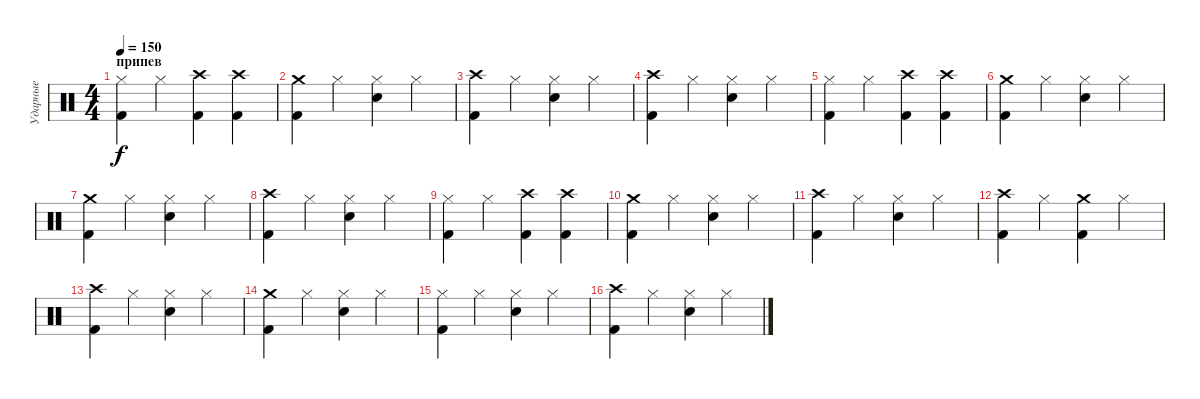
\track ("Ударные" "Ударные") {instrument percussion}
\staff {score}
\articulation defaults
\ts (4 4)
\section ("" "припев ")
\tempo 150
\clef neutral
\ks c
("Hi-Hat (closed)" "Kick (hit) 2").4{dy f} "Hi-Hat (closed)".4 ("Crash high (hit)" "Kick (hit) 2").4 ("Crash high (hit)" "Kick (hit) 2").4 |
("Crash medium (hit)" "Kick (hit) 2").4 "Hi-Hat (closed)".4 ("Hi-Hat (closed)" "Snare (hit) 2").4 "Hi-Hat (closed)".4 |
("Crash high (hit)" "Kick (hit) 2").4 "Hi-Hat (closed)".4 ("Hi-Hat (closed)" "Snare (hit) 2").4 "Hi-Hat (closed)".4 |
("Crash high (hit)" "Kick (hit) 2").4 "Hi-Hat (closed)".4 ("Hi-Hat (closed)" "Snare (hit) 2").4 "Hi-Hat (closed)".4 |
("Hi-Hat (closed)" "Kick (hit) 2").4 "Hi-Hat (closed)".4 ("Crash high (hit)" "Kick (hit) 2").4 ("Crash high (hit)" "Kick (hit) 2").4 |
("Crash medium (hit)" "Kick (hit) 2").4 "Hi-Hat (closed)".4 ("Hi-Hat (closed)" "Snare (hit) 2").4 "Hi-Hat (closed)".4 |
("Crash medium (hit)" "Kick (hit) 2").4 "Hi-Hat (closed)".4 ("Hi-Hat (closed)" "Snare (hit) 2").4 "Hi-Hat (closed)".4 |
("Crash high (hit)" "Kick (hit) 2").4 "Hi-Hat (closed)".4 ("Hi-Hat (closed)" "Snare (hit) 2").4 "Hi-Hat (closed)".4 |
("Hi-Hat (closed)" "Kick (hit) 2").4 "Hi-Hat (closed)".4 ("Crash high (hit)" "Kick (hit) 2").4 ("Crash high (hit)" "Kick (hit) 2").4 |
("Crash medium (hit)" "Kick (hit) 2").4 "Hi-Hat (closed)".4 ("Hi-Hat (closed)" "Snare (hit) 2").4 "Hi-Hat (closed)".4 |
("Crash high (hit)" "Kick (hit) 2").4 "Hi-Hat (closed)".4 ("Hi-Hat (closed)" "Snare (hit) 2").4 "Hi-Hat (closed)".4 |
("Crash high (hit)" "Kick (hit) 2").4 "Hi-Hat (closed)".4 ("Crash medium (hit)" "Kick (hit) 2").4 "Hi-Hat (closed)".4 |
("Crash high (hit)" "Kick (hit) 2").4 "Hi-Hat (closed)".4 ("Hi-Hat (closed)" "Snare (hit) 2").4 "Hi-Hat (closed)".4 |
("Crash medium (hit)" "Kick (hit) 2").4 "Hi-Hat (closed)".4 ("Hi-Hat (closed)" "Snare (hit) 2").4 "Hi-Hat (closed)".4 |
("Hi-Hat (closed)" "Kick (hit) 2").4 "Hi-Hat (closed)".4 ("Hi-Hat (closed)" "Snare (hit) 2").4 "Hi-Hat (closed)".4 |
("Crash high (hit)" "Kick (hit) 2").4 "Hi-Hat (closed)".4 ("Hi-Hat (closed)" "Snare (hit) 2").4 "Hi-Hat (closed)".4
